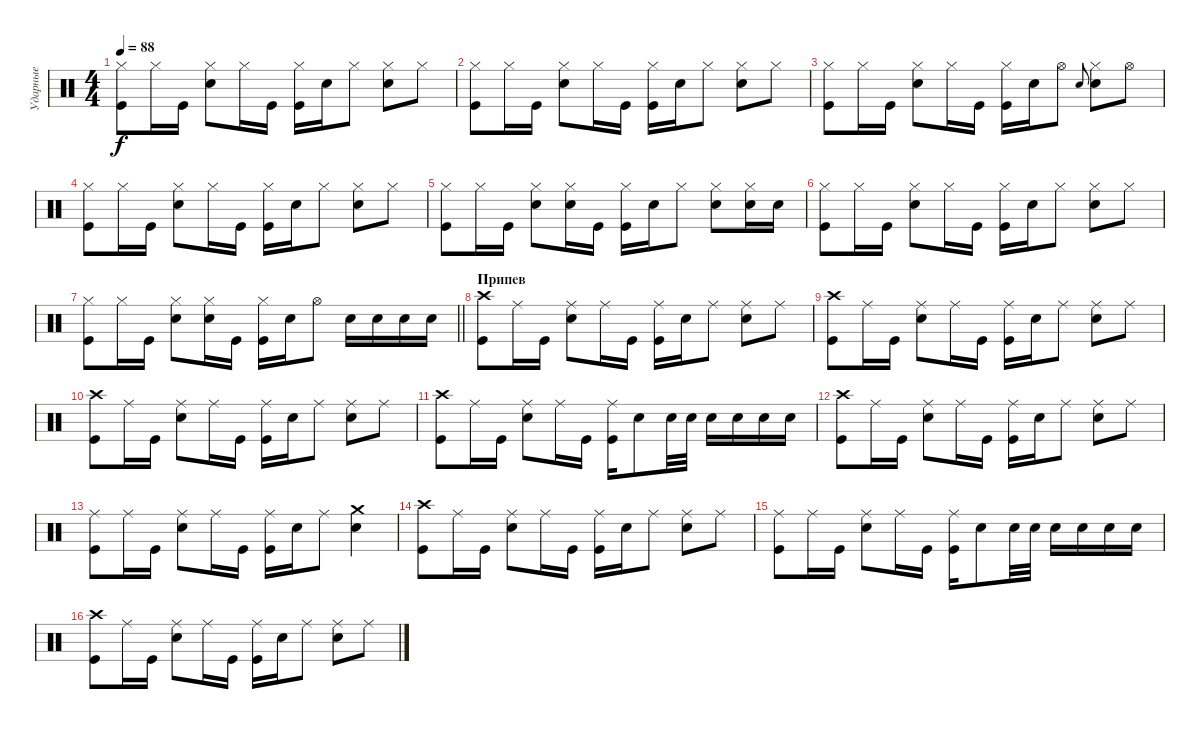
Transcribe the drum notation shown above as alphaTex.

\track ("Ударные" "Ударные") {instrument percussion}
\staff {score}
\articulation defaults
\ts (4 4)
\tempo 88
\clef neutral
\ks c
("Hi-Hat (closed)" "Kick (hit)").8{dy f} "Hi-Hat (closed)".16 "Kick (hit)".16 ("Hi-Hat (closed)" "Snare (hit) 2").8 "Hi-Hat (closed)".16 "Kick (hit)".16 ("Hi-Hat (closed)" "Kick (hit)").16 "Snare (hit) 2".16 "Hi-Hat (closed)".8 ("Hi-Hat (closed)" "Snare (hit) 2").8 "Hi-Hat (closed)".8 |
("Hi-Hat (closed)" "Kick (hit)").8 "Hi-Hat (closed)".16 "Kick (hit)".16 ("Hi-Hat (closed)" "Snare (hit) 2").8 "Hi-Hat (closed)".16 "Kick (hit)".16 ("Hi-Hat (closed)" "Kick (hit)").16 "Snare (hit) 2".16 "Hi-Hat (closed)".8 ("Hi-Hat (closed)" "Snare (hit) 2").8 "Hi-Hat (closed)".8 |
("Hi-Hat (closed)" "Kick (hit)").8 "Hi-Hat (closed)".16 "Kick (hit)".16 ("Hi-Hat (closed)" "Snare (hit) 2").8 "Hi-Hat (closed)".16 "Kick (hit)".16 ("Hi-Hat (closed)" "Kick (hit)").16 "Snare (hit) 2".16 "Hi-Hat (open)".8 "Snare (hit) 2".8{gr onbeat} ("Hi-Hat (closed)" "Snare (hit) 2").8 "Hi-Hat (open)".8 |
("Hi-Hat (closed)" "Kick (hit)").8 "Hi-Hat (closed)".16 "Kick (hit)".16 ("Hi-Hat (closed)" "Snare (hit) 2").8 "Hi-Hat (closed)".16 "Kick (hit)".16 ("Hi-Hat (closed)" "Kick (hit)").16 "Snare (hit) 2".16 "Hi-Hat (closed)".8 ("Hi-Hat (closed)" "Snare (hit) 2").8 "Hi-Hat (closed)".8 |
("Hi-Hat (closed)" "Kick (hit)").8 "Hi-Hat (closed)".16 "Kick (hit)".16 ("Hi-Hat (closed)" "Snare (hit) 2").8 ("Hi-Hat (closed)" "Snare (hit) 2").16 "Kick (hit)".16 ("Hi-Hat (closed)" "Kick (hit)").16 "Snare (hit) 2".16 "Hi-Hat (closed)".8 ("Hi-Hat (closed)" "Snare (hit) 2").8 ("Hi-Hat (closed)" "Snare (hit) 2").16 "Snare (hit) 2".16 |
("Hi-Hat (closed)" "Kick (hit)").8 "Hi-Hat (closed)".16 "Kick (hit)".16 ("Hi-Hat (closed)" "Snare (hit) 2").8 "Hi-Hat (closed)".16 "Kick (hit)".16 ("Hi-Hat (closed)" "Kick (hit)").16 "Snare (hit) 2".16 "Hi-Hat (closed)".8 ("Hi-Hat (closed)" "Snare (hit) 2").8 "Hi-Hat (closed)".8 |
\barLineRight lightlight
("Hi-Hat (closed)" "Kick (hit)").8 "Hi-Hat (closed)".16 "Kick (hit)".16 ("Hi-Hat (closed)" "Snare (hit) 2").8 ("Hi-Hat (closed)" "Snare (hit) 2").16 "Kick (hit)".16 ("Hi-Hat (closed)" "Kick (hit)").16 "Snare (hit) 2".16 "Hi-Hat (open)".8 "Snare (hit) 2".16 "Snare (hit) 2".16 "Snare (hit) 2".16 "Snare (hit) 2".16 |
\section ("" "Припев")
("Crash high (hit)" "Kick (hit)").8 "Ride (middle)".16 "Kick (hit)".16 ("Ride (middle)" "Snare (hit) 2").8 "Ride (middle)".16 "Kick (hit)".16 ("Ride (middle)" "Kick (hit)").16 "Snare (hit) 2".16 "Ride (middle)".8 ("Ride (middle)" "Snare (hit) 2").8 "Ride (middle)".8 |
("Crash high (hit)" "Kick (hit)").8 "Ride (middle)".16 "Kick (hit)".16 ("Ride (middle)" "Snare (hit) 2").8 "Ride (middle)".16 "Kick (hit)".16 ("Ride (middle)" "Kick (hit)").16 "Snare (hit) 2".16 "Ride (middle)".8 ("Ride (middle)" "Snare (hit) 2").8 "Ride (middle)".8 |
("Crash high (hit)" "Kick (hit)").8 "Ride (middle)".16 "Kick (hit)".16 ("Ride (middle)" "Snare (hit) 2").8 "Ride (middle)".16 "Kick (hit)".16 ("Ride (middle)" "Kick (hit)").16 "Snare (hit) 2".16 "Ride (middle)".8 ("Ride (middle)" "Snare (hit) 2").8 "Ride (middle)".8 |
("Crash high (hit)" "Kick (hit)").8 "Ride (middle)".16 "Kick (hit)".16 ("Ride (middle)" "Snare (hit) 2").8 "Ride (middle)".16 "Kick (hit)".16 ("Ride (middle)" "Kick (hit)").16 "Snare (hit) 2".8 "Snare (hit) 2".32 "Snare (hit) 2".32 "Snare (hit) 2".16 "Snare (hit) 2".16 "Snare (hit) 2".16 "Snare (hit) 2".16 |
("Crash high (hit)" "Kick (hit)").8 "Ride (middle)".16 "Kick (hit)".16 ("Ride (middle)" "Snare (hit) 2").8 "Ride (middle)".16 "Kick (hit)".16 ("Ride (middle)" "Kick (hit)").16 "Snare (hit) 2".16 "Ride (middle)".8 ("Ride (middle)" "Snare (hit) 2").8 "Ride (middle)".8 |
("Ride (middle)" "Kick (hit)").8 "Ride (middle)".16 "Kick (hit)".16 ("Ride (middle)" "Snare (hit) 2").8 "Ride (middle)".16 "Kick (hit)".16 ("Ride (middle)" "Kick (hit)").16 "Snare (hit) 2".16 "Ride (middle)".8 ("Crash medium (hit)" "Snare (hit) 2").4 |
("Crash high (hit)" "Kick (hit)").8 "Ride (middle)".16 "Kick (hit)".16 ("Ride (middle)" "Snare (hit) 2").8 "Ride (middle)".16 "Kick (hit)".16 ("Ride (middle)" "Kick (hit)").16 "Snare (hit) 2".16 "Ride (middle)".8 ("Ride (middle)" "Snare (hit) 2").8 "Ride (middle)".8 |
("Ride (middle)" "Kick (hit)").8 "Ride (middle)".16 "Kick (hit)".16 ("Ride (middle)" "Snare (hit) 2").8 "Ride (middle)".16 "Kick (hit)".16 ("Ride (middle)" "Kick (hit)").16 "Snare (hit) 2".8 "Snare (hit) 2".32 "Snare (hit) 2".32 "Snare (hit) 2".16 "Snare (hit) 2".16 "Snare (hit) 2".16 "Snare (hit) 2".16 |
("Crash high (hit)" "Kick (hit)").8 "Ride (middle)".16 "Kick (hit)".16 ("Ride (middle)" "Snare (hit) 2").8 "Ride (middle)".16 "Kick (hit)".16 ("Ride (middle)" "Kick (hit)").16 "Snare (hit) 2".16 "Ride (middle)".8 ("Ride (middle)" "Snare (hit) 2").8 "Ride (middle)".8
